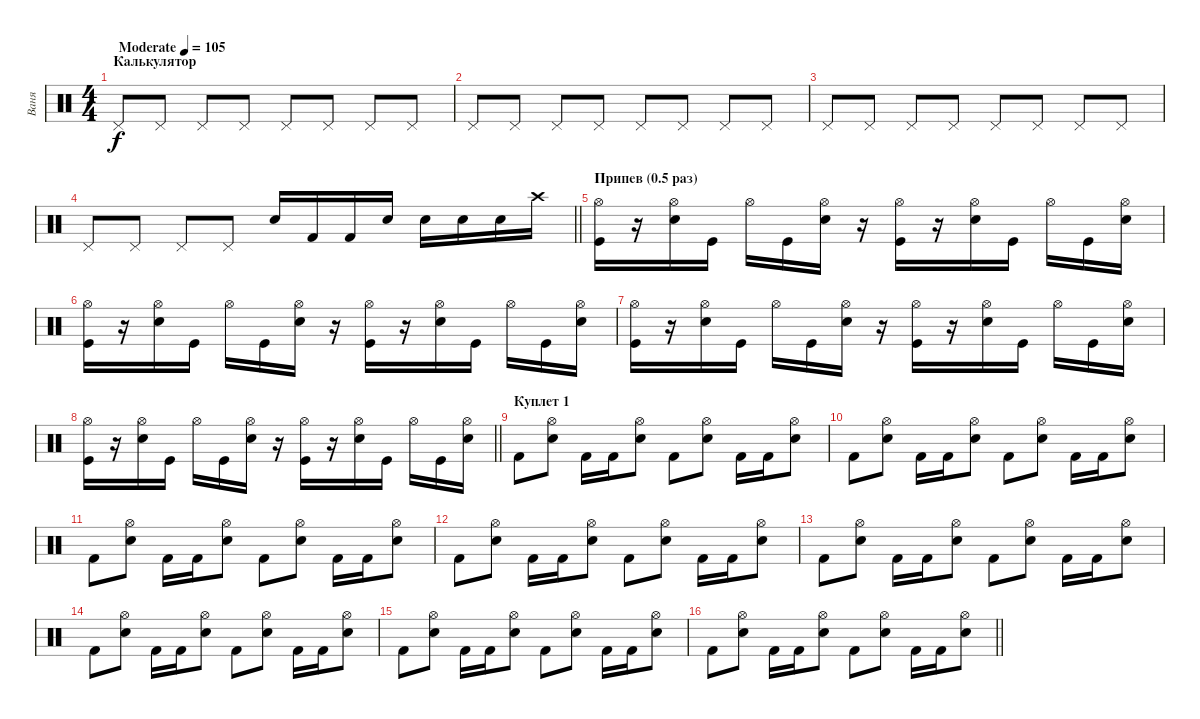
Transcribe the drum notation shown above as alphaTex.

\track ("Ваня" "Ваня") {instrument percussion}
\staff {score}
\articulation defaults
\ts (4 4)
\section ("" "Калькулятор")
\tempo (105 "Moderate")
\clef neutral
\ks c "Pedal Hi-Hat (hit)".8{dy f} "Pedal Hi-Hat (hit)".8 "Pedal Hi-Hat (hit)".8 "Pedal Hi-Hat (hit)".8 "Pedal Hi-Hat (hit)".8 "Pedal Hi-Hat (hit)".8 "Pedal Hi-Hat (hit)".8 "Pedal Hi-Hat (hit)".8
|
"Pedal Hi-Hat (hit)".8 "Pedal Hi-Hat (hit)".8 "Pedal Hi-Hat (hit)".8 "Pedal Hi-Hat (hit)".8 "Pedal Hi-Hat (hit)".8 "Pedal Hi-Hat (hit)".8 "Pedal Hi-Hat (hit)".8 "Pedal Hi-Hat (hit)".8 |
"Pedal Hi-Hat (hit)".8 "Pedal Hi-Hat (hit)".8 "Pedal Hi-Hat (hit)".8 "Pedal Hi-Hat (hit)".8 "Pedal Hi-Hat (hit)".8 "Pedal Hi-Hat (hit)".8 "Pedal Hi-Hat (hit)".8 "Pedal Hi-Hat (hit)".8 |
\barLineRight lightlight "Pedal Hi-Hat (hit)".8 "Pedal Hi-Hat (hit)".8 "Pedal Hi-Hat (hit)".8 "Pedal Hi-Hat (hit)".8 "Snare (hit) 2".16 "Kick (hit) 2".16 "Kick (hit) 2".16 "Snare (hit) 2".16 "Snare (hit) 2".16 "Snare (hit) 2".16 "Snare (hit) 2".16 "Crash high (hit)".16
|
\section ("" "Припев (0.5 раз)")
("Hi-Hat (open)" "Kick (hit)").16 r.16 ("Hi-Hat (open)" "Snare (hit) 2").16 "Kick (hit)".16 "Hi-Hat (open)".16 "Kick (hit)".16 ("Hi-Hat (open)" "Snare (hit) 2").16 r.16 ("Hi-Hat (open)" "Kick (hit)").16 r.16 ("Hi-Hat (open)" "Snare (hit) 2").16 "Kick (hit)".16 "Hi-Hat (open)".16 "Kick (hit)".16 ("Hi-Hat (open)" "Snare (hit) 2").16 |
("Hi-Hat (open)" "Kick (hit)").16 r.16 ("Hi-Hat (open)" "Snare (hit) 2").16 "Kick (hit)".16 "Hi-Hat (open)".16 "Kick (hit)".16 ("Hi-Hat (open)" "Snare (hit) 2").16 r.16 ("Hi-Hat (open)" "Kick (hit)").16 r.16 ("Hi-Hat (open)" "Snare (hit) 2").16 "Kick (hit)".16 "Hi-Hat (open)".16 "Kick (hit)".16 ("Hi-Hat (open)" "Snare (hit) 2").16 |
("Hi-Hat (open)" "Kick (hit)").16 r.16 ("Hi-Hat (open)" "Snare (hit) 2").16 "Kick (hit)".16 "Hi-Hat (open)".16 "Kick (hit)".16 ("Hi-Hat (open)" "Snare (hit) 2").16 r.16 ("Hi-Hat (open)" "Kick (hit)").16 r.16 ("Hi-Hat (open)" "Snare (hit) 2").16 "Kick (hit)".16 "Hi-Hat (open)".16 "Kick (hit)".16 ("Hi-Hat (open)" "Snare (hit) 2").16 |
\barLineRight lightlight
("Hi-Hat (open)" "Kick (hit)").16 r.16 ("Hi-Hat (open)" "Snare (hit) 2").16 "Kick (hit)".16 "Hi-Hat (open)".16 "Kick (hit)".16 ("Hi-Hat (open)" "Snare (hit) 2").16 r.16 ("Hi-Hat (open)" "Kick (hit)").16 r.16 ("Hi-Hat (open)" "Snare (hit) 2").16 "Kick (hit)".16 "Hi-Hat (open)".16 "Kick (hit)".16 ("Hi-Hat (open)" "Snare (hit) 2").16 |
\section ("" "Куплет 1")
"Kick (hit) 2".8 ("Hi-Hat (open)" "Snare (hit) 2").8 "Kick (hit) 2".16 "Kick (hit) 2".16 ("Hi-Hat (open)" "Snare (hit) 2").8 "Kick (hit) 2".8 ("Hi-Hat (open)" "Snare (hit) 2").8 "Kick (hit) 2".16 "Kick (hit) 2".16 ("Hi-Hat (open)" "Snare (hit) 2").8 |
"Kick (hit) 2".8 ("Hi-Hat (open)" "Snare (hit) 2").8 "Kick (hit) 2".16 "Kick (hit) 2".16 ("Hi-Hat (open)" "Snare (hit) 2").8 "Kick (hit) 2".8 ("Hi-Hat (open)" "Snare (hit) 2").8 "Kick (hit) 2".16 "Kick (hit) 2".16 ("Hi-Hat (open)" "Snare (hit) 2").8 |
"Kick (hit) 2".8 ("Hi-Hat (open)" "Snare (hit) 2").8 "Kick (hit) 2".16 "Kick (hit) 2".16 ("Hi-Hat (open)" "Snare (hit) 2").8 "Kick (hit) 2".8 ("Hi-Hat (open)" "Snare (hit) 2").8 "Kick (hit) 2".16 "Kick (hit) 2".16 ("Hi-Hat (open)" "Snare (hit) 2").8 |
"Kick (hit) 2".8 ("Hi-Hat (open)" "Snare (hit) 2").8 "Kick (hit) 2".16 "Kick (hit) 2".16 ("Hi-Hat (open)" "Snare (hit) 2").8 "Kick (hit) 2".8 ("Hi-Hat (open)" "Snare (hit) 2").8 "Kick (hit) 2".16 "Kick (hit) 2".16 ("Hi-Hat (open)" "Snare (hit) 2").8 |
"Kick (hit) 2".8 ("Hi-Hat (open)" "Snare (hit) 2").8 "Kick (hit) 2".16 "Kick (hit) 2".16 ("Hi-Hat (open)" "Snare (hit) 2").8 "Kick (hit) 2".8 ("Hi-Hat (open)" "Snare (hit) 2").8 "Kick (hit) 2".16 "Kick (hit) 2".16 ("Hi-Hat (open)" "Snare (hit) 2").8 |
"Kick (hit) 2".8 ("Hi-Hat (open)" "Snare (hit) 2").8 "Kick (hit) 2".16 "Kick (hit) 2".16 ("Hi-Hat (open)" "Snare (hit) 2").8 "Kick (hit) 2".8 ("Hi-Hat (open)" "Snare (hit) 2").8 "Kick (hit) 2".16 "Kick (hit) 2".16 ("Hi-Hat (open)" "Snare (hit) 2").8 |
"Kick (hit) 2".8 ("Hi-Hat (open)" "Snare (hit) 2").8 "Kick (hit) 2".16 "Kick (hit) 2".16 ("Hi-Hat (open)" "Snare (hit) 2").8 "Kick (hit) 2".8 ("Hi-Hat (open)" "Snare (hit) 2").8 "Kick (hit) 2".16 "Kick (hit) 2".16 ("Hi-Hat (open)" "Snare (hit) 2").8 |
\barLineRight lightlight "Kick (hit) 2".8
("Hi-Hat (open)" "Snare (hit) 2").8 "Kick (hit) 2".16 "Kick (hit) 2".16 ("Hi-Hat (open)" "Snare (hit) 2").8 "Kick (hit) 2".8 ("Hi-Hat (open)" "Snare (hit) 2").8 "Kick (hit) 2".16 "Kick (hit) 2".16 ("Hi-Hat (open)" "Snare (hit) 2").8
